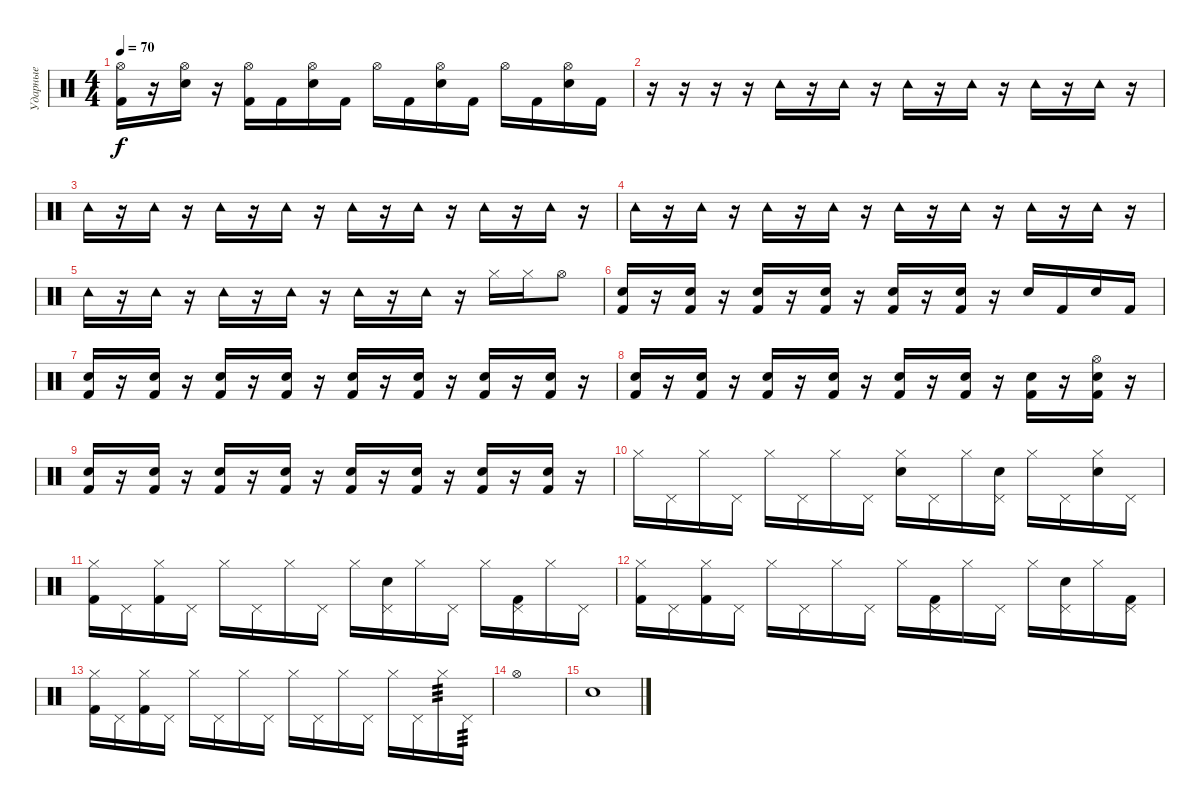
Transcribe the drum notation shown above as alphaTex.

\track ("Ударные" "Ударные") {instrument percussion}
\staff {score}
\articulation defaults
\ts (4 4)
\tempo 70
\clef neutral
\ks c
("Hi-Hat (open)" "Kick (hit) 2").16{dy f} r.16 ("Hi-Hat (open)" "Electric Snare (hit)").16 r.16 ("Hi-Hat (open)" "Kick (hit) 2").16 "Kick (hit) 2".16 ("Hi-Hat (open)" "Electric Snare (hit)").16 "Kick (hit) 2".16 "Hi-Hat (open)".16 "Kick (hit) 2".16 ("Hi-Hat (open)" "Electric Snare (hit)").16 "Kick (hit) 2".16 "Hi-Hat (open)".16 "Kick (hit) 2".16 ("Hi-Hat (open)" "Electric Snare (hit)").16 "Kick (hit) 2".16 |
r.16 r.16 r.16 r.16 "Tambourine (hit)".16 r.16 "Tambourine (hit)".16 r.16 "Tambourine (hit)".16 r.16 "Tambourine (hit)".16 r.16 "Tambourine (hit)".16 r.16 "Tambourine (hit)".16 r.16 |
"Tambourine (hit)".16 r.16 "Tambourine (hit)".16 r.16 "Tambourine (hit)".16 r.16 "Tambourine (hit)".16 r.16 "Tambourine (hit)".16 r.16 "Tambourine (hit)".16 r.16 "Tambourine (hit)".16 r.16 "Tambourine (hit)".16 r.16 |
"Tambourine (hit)".16 r.16 "Tambourine (hit)".16 r.16 "Tambourine (hit)".16 r.16 "Tambourine (hit)".16 r.16 "Tambourine (hit)".16 r.16 "Tambourine (hit)".16 r.16 "Tambourine (hit)".16 r.16 "Tambourine (hit)".16 r.16 |
"Tambourine (hit)".16 r.16 "Tambourine (hit)".16 r.16 "Tambourine (hit)".16 r.16 "Tambourine (hit)".16 r.16 "Tambourine (hit)".16 r.16 "Tambourine (hit)".16 r.16 "Hi-Hat (closed)".16 "Hi-Hat (closed)".16 "Hi-Hat (open)".8 |
("Snare (hit) 2" "Kick (hit) 2").16 r.16 ("Snare (hit) 2" "Kick (hit) 2").16 r.16 ("Snare (hit) 2" "Kick (hit) 2").16 r.16 ("Snare (hit) 2" "Kick (hit) 2").16 r.16 ("Snare (hit) 2" "Kick (hit) 2").16 r.16 ("Snare (hit) 2" "Kick (hit) 2").16 r.16 "Snare (hit) 2".16 "Kick (hit) 2".16 "Snare (hit) 2".16 "Kick (hit) 2".16 |
("Snare (hit) 2" "Kick (hit) 2").16 r.16 ("Snare (hit) 2" "Kick (hit) 2").16 r.16 ("Snare (hit) 2" "Kick (hit) 2").16 r.16 ("Snare (hit) 2" "Kick (hit) 2").16 r.16 ("Snare (hit) 2" "Kick (hit) 2").16 r.16 ("Snare (hit) 2" "Kick (hit) 2").16 r.16 ("Snare (hit) 2" "Kick (hit) 2").16 r.16 ("Snare (hit) 2" "Kick (hit) 2").16 r.16 |
("Snare (hit) 2" "Kick (hit) 2").16 r.16 ("Snare (hit) 2" "Kick (hit) 2").16 r.16 ("Snare (hit) 2" "Kick (hit) 2").16 r.16 ("Snare (hit) 2" "Kick (hit) 2").16 r.16 ("Snare (hit) 2" "Kick (hit) 2").16 r.16 ("Snare (hit) 2" "Kick (hit) 2").16 r.16 ("Snare (hit) 2" "Kick (hit) 2").16 r.16 ("Hi-Hat (open)" "Snare (hit) 2" "Kick (hit) 2").16 r.16 |
("Snare (hit) 2" "Kick (hit) 2").16 r.16 ("Snare (hit) 2" "Kick (hit) 2").16 r.16 ("Snare (hit) 2" "Kick (hit) 2").16 r.16 ("Snare (hit) 2" "Kick (hit) 2").16 r.16 ("Snare (hit) 2" "Kick (hit) 2").16 r.16 ("Snare (hit) 2" "Kick (hit) 2").16 r.16 ("Snare (hit) 2" "Kick (hit) 2").16 r.16 ("Snare (hit) 2" "Kick (hit) 2").16 r.16 |
"Hi-Hat (closed)".16 "Pedal Hi-Hat (hit)".16 "Hi-Hat (closed)".16 "Pedal Hi-Hat (hit)".16 "Hi-Hat (closed)".16 "Pedal Hi-Hat (hit)".16 "Hi-Hat (closed)".16 "Pedal Hi-Hat (hit)".16 ("Hi-Hat (closed)" "Electric Snare (hit)").16 "Pedal Hi-Hat (hit)".16 "Hi-Hat (closed)".16 ("Pedal Hi-Hat (hit)" "Electric Snare (hit)").16 "Hi-Hat (closed)".16 "Pedal Hi-Hat (hit)".16 ("Hi-Hat (closed)" "Electric Snare (hit)").16 "Pedal Hi-Hat (hit)".16 |
("Hi-Hat (closed)" "Kick (hit) 2").16 "Pedal Hi-Hat (hit)".16 ("Hi-Hat (closed)" "Kick (hit) 2").16 "Pedal Hi-Hat (hit)".16 "Hi-Hat (closed)".16 "Pedal Hi-Hat (hit)".16 "Hi-Hat (closed)".16 "Pedal Hi-Hat (hit)".16 "Hi-Hat (closed)".16 ("Pedal Hi-Hat (hit)" "Electric Snare (hit)").16 "Hi-Hat (closed)".16 "Pedal Hi-Hat (hit)".16 "Hi-Hat (closed)".16 ("Pedal Hi-Hat (hit)" "Kick (hit) 2").16 "Hi-Hat (closed)".16 "Pedal Hi-Hat (hit)".16 |
("Hi-Hat (closed)" "Kick (hit) 2").16 "Pedal Hi-Hat (hit)".16 ("Hi-Hat (closed)" "Kick (hit) 2").16 "Pedal Hi-Hat (hit)".16 "Hi-Hat (closed)".16 "Pedal Hi-Hat (hit)".16 "Hi-Hat (closed)".16 "Pedal Hi-Hat (hit)".16 "Hi-Hat (closed)".16 ("Pedal Hi-Hat (hit)" "Kick (hit) 2").16 "Hi-Hat (closed)".16 "Pedal Hi-Hat (hit)".16 "Hi-Hat (closed)".16 ("Pedal Hi-Hat (hit)" "Electric Snare (hit)").16 "Hi-Hat (closed)".16 ("Pedal Hi-Hat (hit)" "Kick (hit) 2").16 |
("Hi-Hat (closed)" "Kick (hit) 2").16 "Pedal Hi-Hat (hit)".16 ("Hi-Hat (closed)" "Kick (hit) 2").16 "Pedal Hi-Hat (hit)".16 "Hi-Hat (closed)".16 "Pedal Hi-Hat (hit)".16 "Hi-Hat (closed)".16 "Pedal Hi-Hat (hit)".16 "Hi-Hat (closed)".16 "Pedal Hi-Hat (hit)".16 "Hi-Hat (closed)".16 "Pedal Hi-Hat (hit)".16 "Hi-Hat (closed)".16 "Pedal Hi-Hat (hit)".16 "Hi-Hat (closed)".16{tp 3} "Pedal Hi-Hat (hit)".16{tp 3} |
"Hi-Hat (open)".1 |
"Electric Snare (hit)".1
